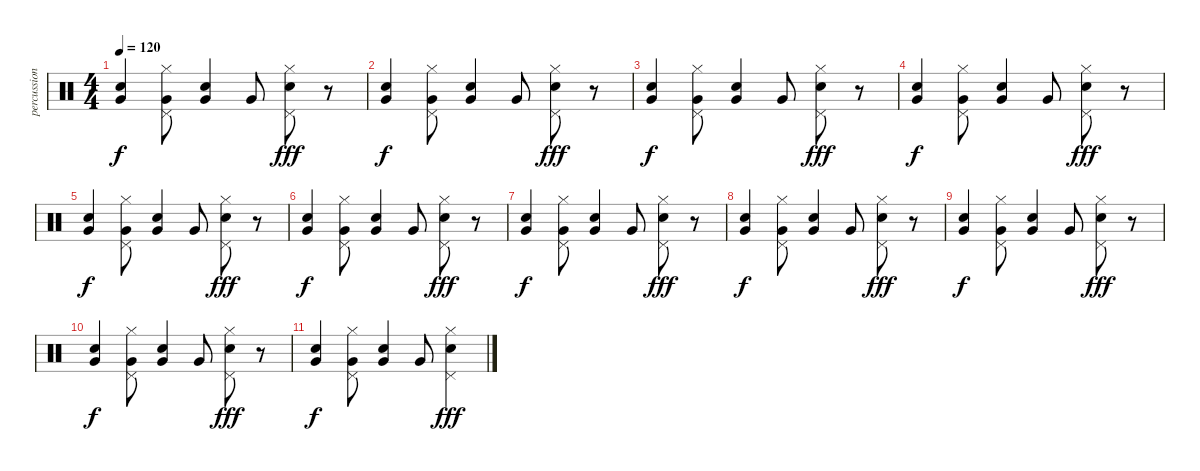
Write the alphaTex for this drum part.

\track ("percussion" "percussion") {instrument percussion}
\staff {score}
\articulation defaults
\ts (4 4)
\tempo 120
\clef neutral
\ks c
("Snare (hit) 2" "Very Low Tom (hit)").4{dy f} ("Pedal Hi-Hat (hit)" "Hi-Hat (closed)" "Very Low Tom (hit)").8 ("Snare (hit) 2" "Very Low Tom (hit)").4 "Very Low Tom (hit)".8 ("Pedal Hi-Hat (hit)" "Hi-Hat (closed)" "Snare (hit) 2").8{dy fff} r.8 |
("Snare (hit) 2" "Very Low Tom (hit)").4{dy f} ("Pedal Hi-Hat (hit)" "Hi-Hat (closed)" "Very Low Tom (hit)").8 ("Snare (hit) 2" "Very Low Tom (hit)").4 "Very Low Tom (hit)".8 ("Pedal Hi-Hat (hit)" "Hi-Hat (closed)" "Snare (hit) 2").8{dy fff} r.8 |
("Snare (hit) 2" "Very Low Tom (hit)").4{dy f} ("Pedal Hi-Hat (hit)" "Hi-Hat (closed)" "Very Low Tom (hit)").8 ("Snare (hit) 2" "Very Low Tom (hit)").4 "Very Low Tom (hit)".8 ("Pedal Hi-Hat (hit)" "Hi-Hat (closed)" "Snare (hit) 2").8{dy fff} r.8 |
("Snare (hit) 2" "Very Low Tom (hit)").4{dy f} ("Pedal Hi-Hat (hit)" "Hi-Hat (closed)" "Very Low Tom (hit)").8 ("Snare (hit) 2" "Very Low Tom (hit)").4 "Very Low Tom (hit)".8 ("Pedal Hi-Hat (hit)" "Hi-Hat (closed)" "Snare (hit) 2").8{dy fff} r.8 |
("Snare (hit) 2" "Very Low Tom (hit)").4{dy f} ("Pedal Hi-Hat (hit)" "Hi-Hat (closed)" "Very Low Tom (hit)").8 ("Snare (hit) 2" "Very Low Tom (hit)").4 "Very Low Tom (hit)".8 ("Pedal Hi-Hat (hit)" "Hi-Hat (closed)" "Snare (hit) 2").8{dy fff} r.8 |
("Snare (hit) 2" "Very Low Tom (hit)").4{dy f} ("Pedal Hi-Hat (hit)" "Hi-Hat (closed)" "Very Low Tom (hit)").8 ("Snare (hit) 2" "Very Low Tom (hit)").4 "Very Low Tom (hit)".8 ("Pedal Hi-Hat (hit)" "Hi-Hat (closed)" "Snare (hit) 2").8{dy fff} r.8 |
("Snare (hit) 2" "Very Low Tom (hit)").4{dy f} ("Pedal Hi-Hat (hit)" "Hi-Hat (closed)" "Very Low Tom (hit)").8 ("Snare (hit) 2" "Very Low Tom (hit)").4 "Very Low Tom (hit)".8 ("Pedal Hi-Hat (hit)" "Hi-Hat (closed)" "Snare (hit) 2").8{dy fff} r.8 |
("Snare (hit) 2" "Very Low Tom (hit)").4{dy f} ("Pedal Hi-Hat (hit)" "Hi-Hat (closed)" "Very Low Tom (hit)").8 ("Snare (hit) 2" "Very Low Tom (hit)").4 "Very Low Tom (hit)".8 ("Pedal Hi-Hat (hit)" "Hi-Hat (closed)" "Snare (hit) 2").8{dy fff} r.8 |
("Snare (hit) 2" "Very Low Tom (hit)").4{dy f} ("Pedal Hi-Hat (hit)" "Hi-Hat (closed)" "Very Low Tom (hit)").8 ("Snare (hit) 2" "Very Low Tom (hit)").4 "Very Low Tom (hit)".8 ("Pedal Hi-Hat (hit)" "Hi-Hat (closed)" "Snare (hit) 2").8{dy fff} r.8 |
("Snare (hit) 2" "Very Low Tom (hit)").4{dy f} ("Pedal Hi-Hat (hit)" "Hi-Hat (closed)" "Very Low Tom (hit)").8 ("Snare (hit) 2" "Very Low Tom (hit)").4 "Very Low Tom (hit)".8 ("Pedal Hi-Hat (hit)" "Hi-Hat (closed)" "Snare (hit) 2").8{dy fff} r.8 |
("Snare (hit) 2" "Very Low Tom (hit)").4{dy f} ("Pedal Hi-Hat (hit)" "Hi-Hat (closed)" "Very Low Tom (hit)").8 ("Snare (hit) 2" "Very Low Tom (hit)").4 "Very Low Tom (hit)".8 ("Pedal Hi-Hat (hit)" "Hi-Hat (closed)" "Snare (hit) 2").4{dy fff}
